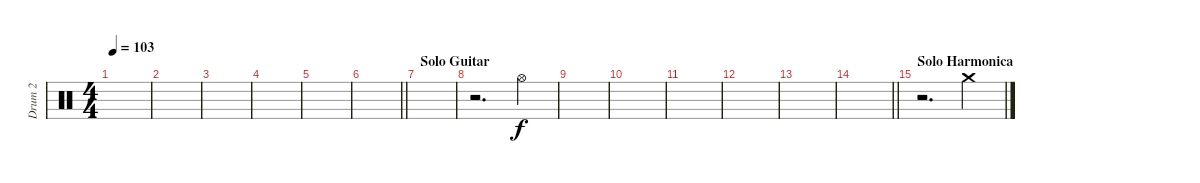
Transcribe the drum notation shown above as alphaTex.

\track ("Drum 2" "Drum 2") {instrument percussion}
\staff {score}
\articulation defaults
\ts (4 4)
\tempo 103
\clef neutral
\ks c
|
|
|
|
|
\barLineRight lightlight
|
\section ("" "Solo Guitar")
|
r.2{d} "Hi-Hat (open)".4 |
|
|
|
|
|
\barLineRight lightlight
|
\section ("" "Solo Harmonica")
r.2{d} "Crash medium (hit)".4
